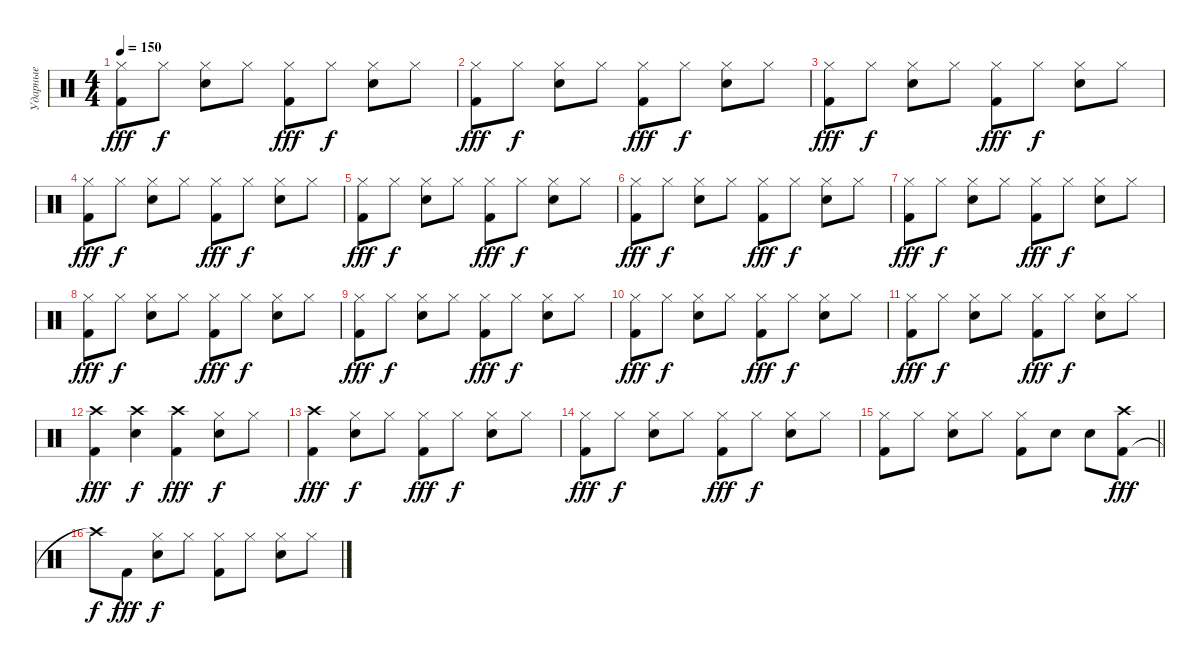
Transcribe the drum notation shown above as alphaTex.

\track ("Ударные" "Ударные") {instrument percussion}
\staff
\articulation defaults
\ts (4 4)
\tempo 150
\clef neutral
\ks c
("Kick (hit) 2" "Hi-Hat (closed)").8{dy fff} "Hi-Hat (closed)".8{dy f} ("Snare (hit) 2" "Hi-Hat (closed)").8 "Hi-Hat (closed)".8 ("Kick (hit) 2" "Hi-Hat (closed)").8{dy fff} "Hi-Hat (closed)".8{dy f} ("Snare (hit) 2" "Hi-Hat (closed)").8 "Hi-Hat (closed)".8 |
("Kick (hit) 2" "Hi-Hat (closed)").8{dy fff} "Hi-Hat (closed)".8{dy f} ("Snare (hit) 2" "Hi-Hat (closed)").8 "Hi-Hat (closed)".8 ("Kick (hit) 2" "Hi-Hat (closed)").8{dy fff} "Hi-Hat (closed)".8{dy f} ("Snare (hit) 2" "Hi-Hat (closed)").8 "Hi-Hat (closed)".8 |
("Kick (hit) 2" "Hi-Hat (closed)").8{dy fff} "Hi-Hat (closed)".8{dy f} ("Snare (hit) 2" "Hi-Hat (closed)").8 "Hi-Hat (closed)".8 ("Kick (hit) 2" "Hi-Hat (closed)").8{dy fff} "Hi-Hat (closed)".8{dy f} ("Snare (hit) 2" "Hi-Hat (closed)").8 "Hi-Hat (closed)".8 |
("Kick (hit) 2" "Hi-Hat (closed)").8{dy fff} "Hi-Hat (closed)".8{dy f} ("Snare (hit) 2" "Hi-Hat (closed)").8 "Hi-Hat (closed)".8 ("Kick (hit) 2" "Hi-Hat (closed)").8{dy fff} "Hi-Hat (closed)".8{dy f} ("Snare (hit) 2" "Hi-Hat (closed)").8 "Hi-Hat (closed)".8 |
("Kick (hit) 2" "Hi-Hat (closed)").8{dy fff} "Hi-Hat (closed)".8{dy f} ("Snare (hit) 2" "Hi-Hat (closed)").8 "Hi-Hat (closed)".8 ("Kick (hit) 2" "Hi-Hat (closed)").8{dy fff} "Hi-Hat (closed)".8{dy f} ("Snare (hit) 2" "Hi-Hat (closed)").8 "Hi-Hat (closed)".8 |
("Kick (hit) 2" "Hi-Hat (closed)").8{dy fff} "Hi-Hat (closed)".8{dy f} ("Snare (hit) 2" "Hi-Hat (closed)").8 "Hi-Hat (closed)".8 ("Kick (hit) 2" "Hi-Hat (closed)").8{dy fff} "Hi-Hat (closed)".8{dy f} ("Snare (hit) 2" "Hi-Hat (closed)").8 "Hi-Hat (closed)".8 |
("Kick (hit) 2" "Hi-Hat (closed)").8{dy fff} "Hi-Hat (closed)".8{dy f} ("Snare (hit) 2" "Hi-Hat (closed)").8 "Hi-Hat (closed)".8 ("Kick (hit) 2" "Hi-Hat (closed)").8{dy fff} "Hi-Hat (closed)".8{dy f} ("Snare (hit) 2" "Hi-Hat (closed)").8 "Hi-Hat (closed)".8 |
("Kick (hit) 2" "Hi-Hat (closed)").8{dy fff} "Hi-Hat (closed)".8{dy f} ("Snare (hit) 2" "Hi-Hat (closed)").8 "Hi-Hat (closed)".8 ("Kick (hit) 2" "Hi-Hat (closed)").8{dy fff} "Hi-Hat (closed)".8{dy f} ("Snare (hit) 2" "Hi-Hat (closed)").8 "Hi-Hat (closed)".8 |
("Kick (hit) 2" "Hi-Hat (closed)").8{dy fff} "Hi-Hat (closed)".8{dy f} ("Snare (hit) 2" "Hi-Hat (closed)").8 "Hi-Hat (closed)".8 ("Kick (hit) 2" "Hi-Hat (closed)").8{dy fff} "Hi-Hat (closed)".8{dy f} ("Snare (hit) 2" "Hi-Hat (closed)").8 "Hi-Hat (closed)".8 |
("Kick (hit) 2" "Hi-Hat (closed)").8{dy fff} "Hi-Hat (closed)".8{dy f} ("Snare (hit) 2" "Hi-Hat (closed)").8 "Hi-Hat (closed)".8 ("Kick (hit) 2" "Hi-Hat (closed)").8{dy fff} "Hi-Hat (closed)".8{dy f} ("Snare (hit) 2" "Hi-Hat (closed)").8 "Hi-Hat (closed)".8 |
("Kick (hit) 2" "Hi-Hat (closed)").8{dy fff} "Hi-Hat (closed)".8{dy f} ("Snare (hit) 2" "Hi-Hat (closed)").8 "Hi-Hat (closed)".8 ("Kick (hit) 2" "Hi-Hat (closed)").8{dy fff} "Hi-Hat (closed)".8{dy f} ("Snare (hit) 2" "Hi-Hat (closed)").8 "Hi-Hat (closed)".8 |
("Kick (hit) 2" "Crash high (hit)").4{dy fff} ("Snare (hit) 2" "Crash high (hit)").4{dy f} ("Kick (hit) 2" "Crash high (hit)").4{dy fff} ("Snare (hit) 2" "Hi-Hat (closed)").8{dy f} "Hi-Hat (closed)".8 |
("Kick (hit) 2" "Crash high (hit)").4{dy fff} ("Snare (hit) 2" "Hi-Hat (closed)").8{dy f} "Hi-Hat (closed)".8 ("Kick (hit) 2" "Hi-Hat (closed)").8{dy fff} "Hi-Hat (closed)".8{dy f} ("Snare (hit) 2" "Hi-Hat (closed)").8 "Hi-Hat (closed)".8 |
("Kick (hit) 2" "Hi-Hat (closed)").8{dy fff} "Hi-Hat (closed)".8{dy f} ("Snare (hit) 2" "Hi-Hat (closed)").8 "Hi-Hat (closed)".8 ("Kick (hit) 2" "Hi-Hat (closed)").8{dy fff} "Hi-Hat (closed)".8{dy f} ("Snare (hit) 2" "Hi-Hat (closed)").8 "Hi-Hat (closed)".8 |
\barLineRight lightlight
("Kick (hit) 2" "Hi-Hat (closed)").8 "Hi-Hat (closed)".8 ("Snare (hit) 2" "Hi-Hat (closed)").8 "Hi-Hat (closed)".8 ("Kick (hit) 2" "Hi-Hat (closed)").8 "Snare (hit) 2".8 "Snare (hit) 2".8 ("Kick (hit) 2" "Crash high (hit)").8{dy fff} |
"Crash high (hit)"{t}.8{dy f} "Kick (hit) 2".8{dy fff} ("Snare (hit) 2" "Hi-Hat (closed)").8{dy f} "Hi-Hat (closed)".8 ("Kick (hit) 2" "Hi-Hat (closed)").8 "Hi-Hat (closed)".8 ("Snare (hit) 2" "Hi-Hat (closed)").8 "Hi-Hat (closed)".8
